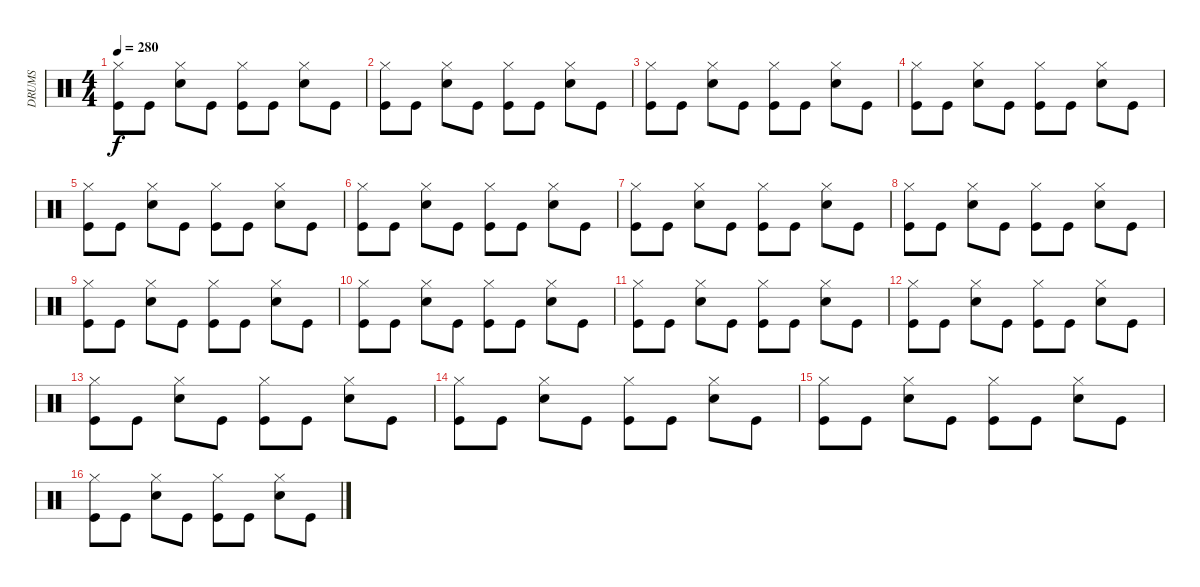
\track ("DRUMS" "DRUMS") {instrument percussion}
\staff {score}
\articulation defaults
\ts (4 4)
\tempo 280
\clef neutral
\ks aminor
("Hi-Hat (closed)" "Kick (hit)").8{dy f} "Kick (hit)".8 ("Hi-Hat (closed)" "Snare (hit) 2").8 "Kick (hit)".8 ("Hi-Hat (closed)" "Kick (hit)").8 "Kick (hit)".8 ("Hi-Hat (closed)" "Snare (hit) 2").8 "Kick (hit)".8 |
("Hi-Hat (closed)" "Kick (hit)").8 "Kick (hit)".8 ("Hi-Hat (closed)" "Snare (hit) 2").8 "Kick (hit)".8 ("Hi-Hat (closed)" "Kick (hit)").8 "Kick (hit)".8 ("Hi-Hat (closed)" "Snare (hit) 2").8 "Kick (hit)".8 |
("Hi-Hat (closed)" "Kick (hit)").8 "Kick (hit)".8 ("Hi-Hat (closed)" "Snare (hit) 2").8 "Kick (hit)".8 ("Hi-Hat (closed)" "Kick (hit)").8 "Kick (hit)".8 ("Hi-Hat (closed)" "Snare (hit) 2").8 "Kick (hit)".8 |
("Hi-Hat (closed)" "Kick (hit)").8 "Kick (hit)".8 ("Hi-Hat (closed)" "Snare (hit) 2").8 "Kick (hit)".8 ("Hi-Hat (closed)" "Kick (hit)").8 "Kick (hit)".8 ("Hi-Hat (closed)" "Snare (hit) 2").8 "Kick (hit)".8 |
("Hi-Hat (closed)" "Kick (hit)").8 "Kick (hit)".8 ("Hi-Hat (closed)" "Snare (hit) 2").8 "Kick (hit)".8 ("Hi-Hat (closed)" "Kick (hit)").8 "Kick (hit)".8 ("Hi-Hat (closed)" "Snare (hit) 2").8 "Kick (hit)".8 |
("Hi-Hat (closed)" "Kick (hit)").8 "Kick (hit)".8 ("Hi-Hat (closed)" "Snare (hit) 2").8 "Kick (hit)".8 ("Hi-Hat (closed)" "Kick (hit)").8 "Kick (hit)".8 ("Hi-Hat (closed)" "Snare (hit) 2").8 "Kick (hit)".8 |
("Hi-Hat (closed)" "Kick (hit)").8 "Kick (hit)".8 ("Hi-Hat (closed)" "Snare (hit) 2").8 "Kick (hit)".8 ("Hi-Hat (closed)" "Kick (hit)").8 "Kick (hit)".8 ("Hi-Hat (closed)" "Snare (hit) 2").8 "Kick (hit)".8 |
("Hi-Hat (closed)" "Kick (hit)").8 "Kick (hit)".8 ("Hi-Hat (closed)" "Snare (hit) 2").8 "Kick (hit)".8 ("Hi-Hat (closed)" "Kick (hit)").8 "Kick (hit)".8 ("Hi-Hat (closed)" "Snare (hit) 2").8 "Kick (hit)".8 |
("Hi-Hat (closed)" "Kick (hit)").8 "Kick (hit)".8 ("Hi-Hat (closed)" "Snare (hit) 2").8 "Kick (hit)".8 ("Hi-Hat (closed)" "Kick (hit)").8 "Kick (hit)".8 ("Hi-Hat (closed)" "Snare (hit) 2").8 "Kick (hit)".8 |
("Hi-Hat (closed)" "Kick (hit)").8 "Kick (hit)".8 ("Hi-Hat (closed)" "Snare (hit) 2").8 "Kick (hit)".8 ("Hi-Hat (closed)" "Kick (hit)").8 "Kick (hit)".8 ("Hi-Hat (closed)" "Snare (hit) 2").8 "Kick (hit)".8 |
("Hi-Hat (closed)" "Kick (hit)").8 "Kick (hit)".8 ("Hi-Hat (closed)" "Snare (hit) 2").8 "Kick (hit)".8 ("Hi-Hat (closed)" "Kick (hit)").8 "Kick (hit)".8 ("Hi-Hat (closed)" "Snare (hit) 2").8 "Kick (hit)".8 |
("Hi-Hat (closed)" "Kick (hit)").8 "Kick (hit)".8 ("Hi-Hat (closed)" "Snare (hit) 2").8 "Kick (hit)".8 ("Hi-Hat (closed)" "Kick (hit)").8 "Kick (hit)".8 ("Hi-Hat (closed)" "Snare (hit) 2").8 "Kick (hit)".8 |
("Hi-Hat (closed)" "Kick (hit)").8 "Kick (hit)".8 ("Hi-Hat (closed)" "Snare (hit) 2").8 "Kick (hit)".8 ("Hi-Hat (closed)" "Kick (hit)").8 "Kick (hit)".8 ("Hi-Hat (closed)" "Snare (hit) 2").8 "Kick (hit)".8 |
("Hi-Hat (closed)" "Kick (hit)").8 "Kick (hit)".8 ("Hi-Hat (closed)" "Snare (hit) 2").8 "Kick (hit)".8 ("Hi-Hat (closed)" "Kick (hit)").8 "Kick (hit)".8 ("Hi-Hat (closed)" "Snare (hit) 2").8 "Kick (hit)".8 |
("Hi-Hat (closed)" "Kick (hit)").8 "Kick (hit)".8 ("Hi-Hat (closed)" "Snare (hit) 2").8 "Kick (hit)".8 ("Hi-Hat (closed)" "Kick (hit)").8 "Kick (hit)".8 ("Hi-Hat (closed)" "Snare (hit) 2").8 "Kick (hit)".8 |
("Hi-Hat (closed)" "Kick (hit)").8 "Kick (hit)".8 ("Hi-Hat (closed)" "Snare (hit) 2").8 "Kick (hit)".8 ("Hi-Hat (closed)" "Kick (hit)").8 "Kick (hit)".8 ("Hi-Hat (closed)" "Snare (hit) 2").8 "Kick (hit)".8
